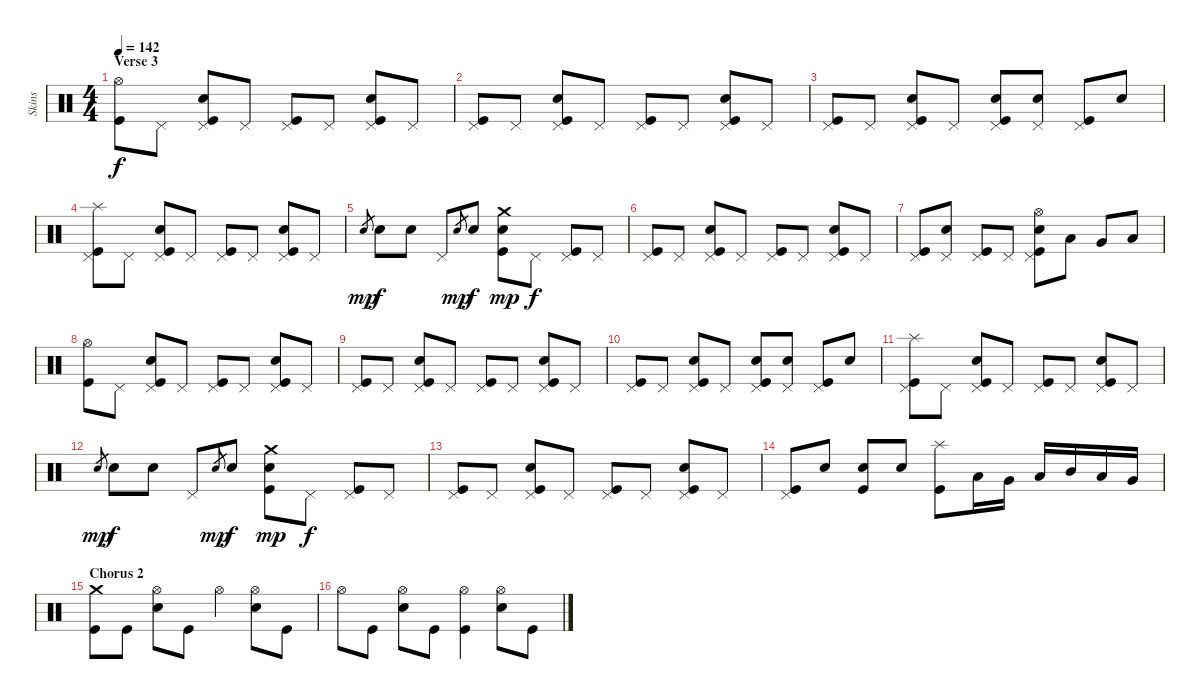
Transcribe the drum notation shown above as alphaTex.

\track ("Skins" "Skins") {instrument percussion}
\staff {score}
\articulation defaults
\ts (4 4)
\section ("" "Verse 3")
\tempo 142
\clef neutral
\ks c
("Hi-Hat (open)" "Kick (hit)").8{dy f} "Pedal Hi-Hat (hit)".8 ("Electric Snare (hit)" "Pedal Hi-Hat (hit)" "Kick (hit)").8 "Pedal Hi-Hat (hit)".8 ("Pedal Hi-Hat (hit)" "Kick (hit)").8 "Pedal Hi-Hat (hit)".8 ("Snare (hit) 2" "Pedal Hi-Hat (hit)" "Kick (hit)").8 "Pedal Hi-Hat (hit)".8 |
("Pedal Hi-Hat (hit)" "Kick (hit)").8 "Pedal Hi-Hat (hit)".8 ("Electric Snare (hit)" "Pedal Hi-Hat (hit)" "Kick (hit)").8 "Pedal Hi-Hat (hit)".8 ("Pedal Hi-Hat (hit)" "Kick (hit)").8 "Pedal Hi-Hat (hit)".8 ("Snare (hit) 2" "Pedal Hi-Hat (hit)" "Kick (hit)").8 "Pedal Hi-Hat (hit)".8 |
("Pedal Hi-Hat (hit)" "Kick (hit)").8 "Pedal Hi-Hat (hit)".8 ("Electric Snare (hit)" "Pedal Hi-Hat (hit)" "Kick (hit)").8 "Pedal Hi-Hat (hit)".8 ("Electric Snare (hit)" "Pedal Hi-Hat (hit)" "Kick (hit)").8 ("Electric Snare (hit)" "Pedal Hi-Hat (hit)").8 ("Pedal Hi-Hat (hit)" "Kick (hit)").8 "Snare (hit) 2".8 |
("Splash (hit)" "Pedal Hi-Hat (hit)" "Kick (hit)").8 "Pedal Hi-Hat (hit)".8 ("Electric Snare (hit)" "Pedal Hi-Hat (hit)" "Kick (hit)").8 "Pedal Hi-Hat (hit)".8 ("Pedal Hi-Hat (hit)" "Kick (hit)").8 "Pedal Hi-Hat (hit)".8 ("Snare (hit) 2" "Pedal Hi-Hat (hit)" "Kick (hit)").8 "Pedal Hi-Hat (hit)".8 |
"Snare (hit) 2".8{gr dy mp} "Snare (hit) 2".8{dy f} "Snare (hit) 2".8 "Pedal Hi-Hat (hit)".8 "Snare (hit) 2".8{gr dy mp} "Snare (hit) 2".8{dy f} ("Crash medium (hit)" "Electric Snare (hit)" "Kick (hit)").8{dy mp} "Pedal Hi-Hat (hit)".8{dy f} ("Pedal Hi-Hat (hit)" "Kick (hit)").8 "Pedal Hi-Hat (hit)".8 |
("Pedal Hi-Hat (hit)" "Kick (hit)").8 "Pedal Hi-Hat (hit)".8 ("Electric Snare (hit)" "Pedal Hi-Hat (hit)" "Kick (hit)").8 "Pedal Hi-Hat (hit)".8 ("Pedal Hi-Hat (hit)" "Kick (hit)").8 "Pedal Hi-Hat (hit)".8 ("Snare (hit) 2" "Pedal Hi-Hat (hit)" "Kick (hit)").8 "Pedal Hi-Hat (hit)".8 |
("Pedal Hi-Hat (hit)" "Kick (hit)").8 ("Snare (hit) 2" "Pedal Hi-Hat (hit)").8 ("Pedal Hi-Hat (hit)" "Kick (hit)").8 "Pedal Hi-Hat (hit)".8 ("Hi-Hat (open)" "Electric Snare (hit)" "Pedal Hi-Hat (hit)" "Kick (hit)").8 "Low Tom (hit)".8 "Very Low Tom (hit)".8 "Low Floor Tom (hit)".8 |
("Hi-Hat (open)" "Kick (hit)").8 "Pedal Hi-Hat (hit)".8 ("Electric Snare (hit)" "Pedal Hi-Hat (hit)" "Kick (hit)").8 "Pedal Hi-Hat (hit)".8 ("Pedal Hi-Hat (hit)" "Kick (hit)").8 "Pedal Hi-Hat (hit)".8 ("Snare (hit) 2" "Pedal Hi-Hat (hit)" "Kick (hit)").8 "Pedal Hi-Hat (hit)".8 |
("Pedal Hi-Hat (hit)" "Kick (hit)").8 "Pedal Hi-Hat (hit)".8 ("Electric Snare (hit)" "Pedal Hi-Hat (hit)" "Kick (hit)").8 "Pedal Hi-Hat (hit)".8 ("Pedal Hi-Hat (hit)" "Kick (hit)").8 "Pedal Hi-Hat (hit)".8 ("Snare (hit) 2" "Pedal Hi-Hat (hit)" "Kick (hit)").8 "Pedal Hi-Hat (hit)".8 |
("Pedal Hi-Hat (hit)" "Kick (hit)").8 "Pedal Hi-Hat (hit)".8 ("Electric Snare (hit)" "Pedal Hi-Hat (hit)" "Kick (hit)").8 "Pedal Hi-Hat (hit)".8 ("Electric Snare (hit)" "Pedal Hi-Hat (hit)" "Kick (hit)").8 ("Electric Snare (hit)" "Pedal Hi-Hat (hit)").8 ("Pedal Hi-Hat (hit)" "Kick (hit)").8 "Snare (hit) 2".8 |
("Splash (hit)" "Pedal Hi-Hat (hit)" "Kick (hit)").8 "Pedal Hi-Hat (hit)".8 ("Electric Snare (hit)" "Pedal Hi-Hat (hit)" "Kick (hit)").8 "Pedal Hi-Hat (hit)".8 ("Pedal Hi-Hat (hit)" "Kick (hit)").8 "Pedal Hi-Hat (hit)".8 ("Snare (hit) 2" "Pedal Hi-Hat (hit)" "Kick (hit)").8 "Pedal Hi-Hat (hit)".8 |
"Snare (hit) 2".8{gr dy mp} "Snare (hit) 2".8{dy f} "Snare (hit) 2".8 "Pedal Hi-Hat (hit)".8 "Snare (hit) 2".8{gr dy mp} "Snare (hit) 2".8{dy f} ("Crash medium (hit)" "Electric Snare (hit)" "Kick (hit)").8{dy mp} "Pedal Hi-Hat (hit)".8{dy f} ("Pedal Hi-Hat (hit)" "Kick (hit)").8 "Pedal Hi-Hat (hit)".8 |
("Pedal Hi-Hat (hit)" "Kick (hit)").8 "Pedal Hi-Hat (hit)".8 ("Electric Snare (hit)" "Pedal Hi-Hat (hit)" "Kick (hit)").8 "Pedal Hi-Hat (hit)".8 ("Pedal Hi-Hat (hit)" "Kick (hit)").8 "Pedal Hi-Hat (hit)".8 ("Snare (hit) 2" "Pedal Hi-Hat (hit)" "Kick (hit)").8 "Pedal Hi-Hat (hit)".8 |
("Pedal Hi-Hat (hit)" "Kick (hit)").8 "Snare (hit) 2".8 ("Electric Snare (hit)" "Kick (hit)").8 "Electric Snare (hit)".8 ("Splash (hit)" "Kick (hit)").8 "Low Tom (hit)".16 "Very Low Tom (hit)".16 "Low Floor Tom (hit)".16 "Mid Tom (hit)".16 "Low Tom (hit)".16 "Very Low Tom (hit)".16 |
\section ("" "Chorus 2")
("Crash medium (hit)" "Kick (hit)").8 "Kick (hit)".8 ("Hi-Hat (open)" "Electric Snare (hit)").8 "Kick (hit)".8 "Hi-Hat (open)".4 ("Hi-Hat (open)" "Electric Snare (hit)").8 "Kick (hit)".8 |
"Hi-Hat (open)".8 "Kick (hit)".8 ("Hi-Hat (open)" "Electric Snare (hit)").8 "Kick (hit)".8 ("Hi-Hat (open)" "Kick (hit)").4 ("Hi-Hat (open)" "Electric Snare (hit)").8 "Kick (hit)".8
